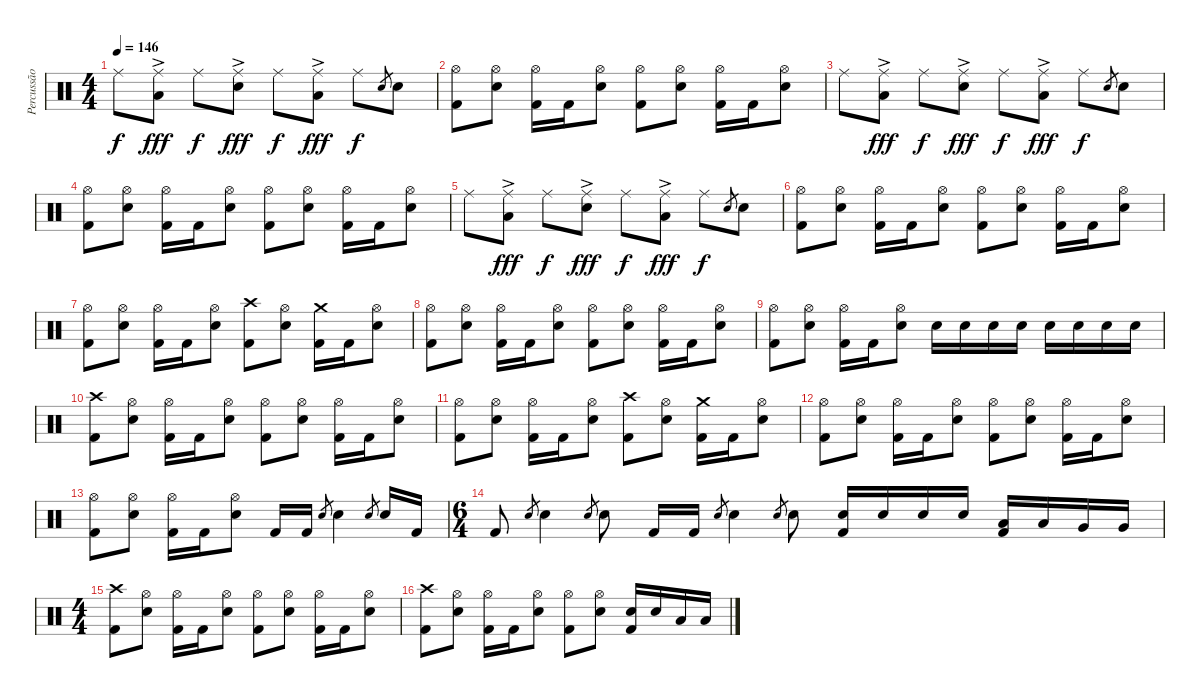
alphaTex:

\track ("Percussão" "Percussão") {instrument percussion}
\staff {score}
\articulation defaults
\ts (4 4)
\tempo 146
\clef neutral
\ks c "Ride (middle)".8{dy f}
("Ride (middle)"{ac} "Low Tom (hit)").8{dy fff} "Ride (middle)".8{dy f} ("Ride (middle)"{ac} "Snare (hit) 2").8{dy fff} "Ride (middle)".8{dy f} ("Ride (middle)"{ac} "Low Tom (hit)").8{dy fff} "Ride (middle)".8{dy f} "Snare (hit) 2".8{gr} "Snare (hit) 2".8 |
("Hi-Hat (open)" "Kick (hit) 2").8 ("Hi-Hat (open)" "Snare (hit) 2").8 ("Hi-Hat (open)" "Kick (hit) 2").16 "Kick (hit) 2".16 ("Hi-Hat (open)" "Snare (hit) 2").8 ("Hi-Hat (open)" "Kick (hit) 2").8 ("Hi-Hat (open)" "Snare (hit) 2").8 ("Hi-Hat (open)" "Kick (hit) 2").16 "Kick (hit) 2".16 ("Hi-Hat (open)" "Snare (hit) 2").8 |
"Ride (middle)".8 ("Ride (middle)"{ac} "Low Tom (hit)").8{dy fff} "Ride (middle)".8{dy f} ("Ride (middle)"{ac} "Snare (hit) 2").8{dy fff} "Ride (middle)".8{dy f} ("Ride (middle)"{ac} "Low Tom (hit)").8{dy fff} "Ride (middle)".8{dy f} "Snare (hit) 2".8{gr} "Snare (hit) 2".8 |
("Hi-Hat (open)" "Kick (hit) 2").8 ("Hi-Hat (open)" "Snare (hit) 2").8 ("Hi-Hat (open)" "Kick (hit) 2").16 "Kick (hit) 2".16 ("Hi-Hat (open)" "Snare (hit) 2").8 ("Hi-Hat (open)" "Kick (hit) 2").8 ("Hi-Hat (open)" "Snare (hit) 2").8 ("Hi-Hat (open)" "Kick (hit) 2").16 "Kick (hit) 2".16 ("Hi-Hat (open)" "Snare (hit) 2").8 |
"Ride (middle)".8 ("Ride (middle)"{ac} "Low Tom (hit)").8{dy fff} "Ride (middle)".8{dy f} ("Ride (middle)"{ac} "Snare (hit) 2").8{dy fff} "Ride (middle)".8{dy f} ("Ride (middle)"{ac} "Low Tom (hit)").8{dy fff} "Ride (middle)".8{dy f} "Snare (hit) 2".8{gr} "Snare (hit) 2".8 |
\section ("" "")
("Hi-Hat (open)" "Kick (hit) 2").8 ("Hi-Hat (open)" "Snare (hit) 2").8 ("Hi-Hat (open)" "Kick (hit) 2").16 "Kick (hit) 2".16 ("Hi-Hat (open)" "Snare (hit) 2").8 ("Hi-Hat (open)" "Kick (hit) 2").8 ("Hi-Hat (open)" "Snare (hit) 2").8 ("Hi-Hat (open)" "Kick (hit) 2").16 "Kick (hit) 2".16 ("Hi-Hat (open)" "Snare (hit) 2").8 |
("Hi-Hat (open)" "Kick (hit) 2").8 ("Hi-Hat (open)" "Snare (hit) 2").8 ("Hi-Hat (open)" "Kick (hit) 2").16 "Kick (hit) 2".16 ("Hi-Hat (open)" "Snare (hit) 2").8 ("Crash high (hit)" "Kick (hit) 2").8 ("Hi-Hat (open)" "Snare (hit) 2").8 ("Crash medium (hit)" "Kick (hit) 2").16 "Kick (hit) 2".16 ("Hi-Hat (open)" "Snare (hit) 2").8 |
("Hi-Hat (open)" "Kick (hit) 2").8 ("Hi-Hat (open)" "Snare (hit) 2").8 ("Hi-Hat (open)" "Kick (hit) 2").16 "Kick (hit) 2".16 ("Hi-Hat (open)" "Snare (hit) 2").8 ("Hi-Hat (open)" "Kick (hit) 2").8 ("Hi-Hat (open)" "Snare (hit) 2").8 ("Hi-Hat (open)" "Kick (hit) 2").16 "Kick (hit) 2".16 ("Hi-Hat (open)" "Snare (hit) 2").8 |
("Hi-Hat (open)" "Kick (hit) 2").8 ("Hi-Hat (open)" "Snare (hit) 2").8 ("Hi-Hat (open)" "Kick (hit) 2").16 "Kick (hit) 2".16 ("Hi-Hat (open)" "Snare (hit) 2").8 "Snare (hit) 2".16 "Snare (hit) 2".16 "Snare (hit) 2".16 "Snare (hit) 2".16 "Snare (hit) 2".16 "Snare (hit) 2".16 "Snare (hit) 2".16 "Snare (hit) 2".16 |
("Crash high (hit)" "Kick (hit) 2").8 ("Hi-Hat (open)" "Snare (hit) 2").8 ("Hi-Hat (open)" "Kick (hit) 2").16 "Kick (hit) 2".16 ("Hi-Hat (open)" "Snare (hit) 2").8 ("Hi-Hat (open)" "Kick (hit) 2").8 ("Hi-Hat (open)" "Snare (hit) 2").8 ("Hi-Hat (open)" "Kick (hit) 2").16 "Kick (hit) 2".16 ("Hi-Hat (open)" "Snare (hit) 2").8 |
("Hi-Hat (open)" "Kick (hit) 2").8 ("Hi-Hat (open)" "Snare (hit) 2").8 ("Hi-Hat (open)" "Kick (hit) 2").16 "Kick (hit) 2".16 ("Hi-Hat (open)" "Snare (hit) 2").8 ("Crash high (hit)" "Kick (hit) 2").8 ("Hi-Hat (open)" "Snare (hit) 2").8 ("Crash medium (hit)" "Kick (hit) 2").16 "Kick (hit) 2".16 ("Hi-Hat (open)" "Snare (hit) 2").8 |
("Hi-Hat (open)" "Kick (hit) 2").8 ("Hi-Hat (open)" "Snare (hit) 2").8 ("Hi-Hat (open)" "Kick (hit) 2").16 "Kick (hit) 2".16 ("Hi-Hat (open)" "Snare (hit) 2").8 ("Hi-Hat (open)" "Kick (hit) 2").8 ("Hi-Hat (open)" "Snare (hit) 2").8 ("Hi-Hat (open)" "Kick (hit) 2").16 "Kick (hit) 2".16 ("Hi-Hat (open)" "Snare (hit) 2").8 |
("Hi-Hat (open)" "Kick (hit) 2").8 ("Hi-Hat (open)" "Snare (hit) 2").8 ("Hi-Hat (open)" "Kick (hit) 2").16 "Kick (hit) 2".16 ("Hi-Hat (open)" "Snare (hit) 2").8 "Kick (hit) 2".16 "Kick (hit) 2".16 "Snare (hit) 2".8{gr} "Snare (hit) 2".4 "Snare (hit) 2".8{gr} "Snare (hit) 2".16 "Kick (hit) 2".16 |
\ts (6 4)
"Kick (hit) 2".8 "Snare (hit) 2".8{gr} "Snare (hit) 2".4 "Snare (hit) 2".8{gr} "Snare (hit) 2".8 "Kick (hit) 2".16 "Kick (hit) 2".16 "Snare (hit) 2".8{gr} "Snare (hit) 2".4 "Snare (hit) 2".8{gr} "Snare (hit) 2".8 ("Snare (hit) 2" "Kick (hit) 2").16 "Snare (hit) 2".16 "Snare (hit) 2".16 "Snare (hit) 2".16 ("Low Tom (hit)" "Kick (hit) 2").16 "Low Tom (hit)".16 "Very Low Tom (hit)".16 "Very Low Tom (hit)".16 |
\ts (4 4)
\section ("" "")
("Crash high (hit)" "Kick (hit) 2").8 ("Hi-Hat (open)" "Snare (hit) 2").8 ("Hi-Hat (open)" "Kick (hit) 2").16 "Kick (hit) 2".16 ("Hi-Hat (open)" "Snare (hit) 2").8 ("Hi-Hat (open)" "Kick (hit) 2").8 ("Hi-Hat (open)" "Snare (hit) 2").8 ("Hi-Hat (open)" "Kick (hit) 2").16 "Kick (hit) 2".16 ("Hi-Hat (open)" "Snare (hit) 2").8 |
("Crash high (hit)" "Kick (hit) 2").8 ("Hi-Hat (open)" "Snare (hit) 2").8 ("Hi-Hat (open)" "Kick (hit) 2").16 "Kick (hit) 2".16 ("Hi-Hat (open)" "Snare (hit) 2").8 ("Hi-Hat (open)" "Kick (hit) 2").8 ("Hi-Hat (open)" "Snare (hit) 2").8 ("Snare (hit) 2" "Kick (hit) 2").16 "Snare (hit) 2".16 "Low Tom (hit)".16 "Low Tom (hit)".16
